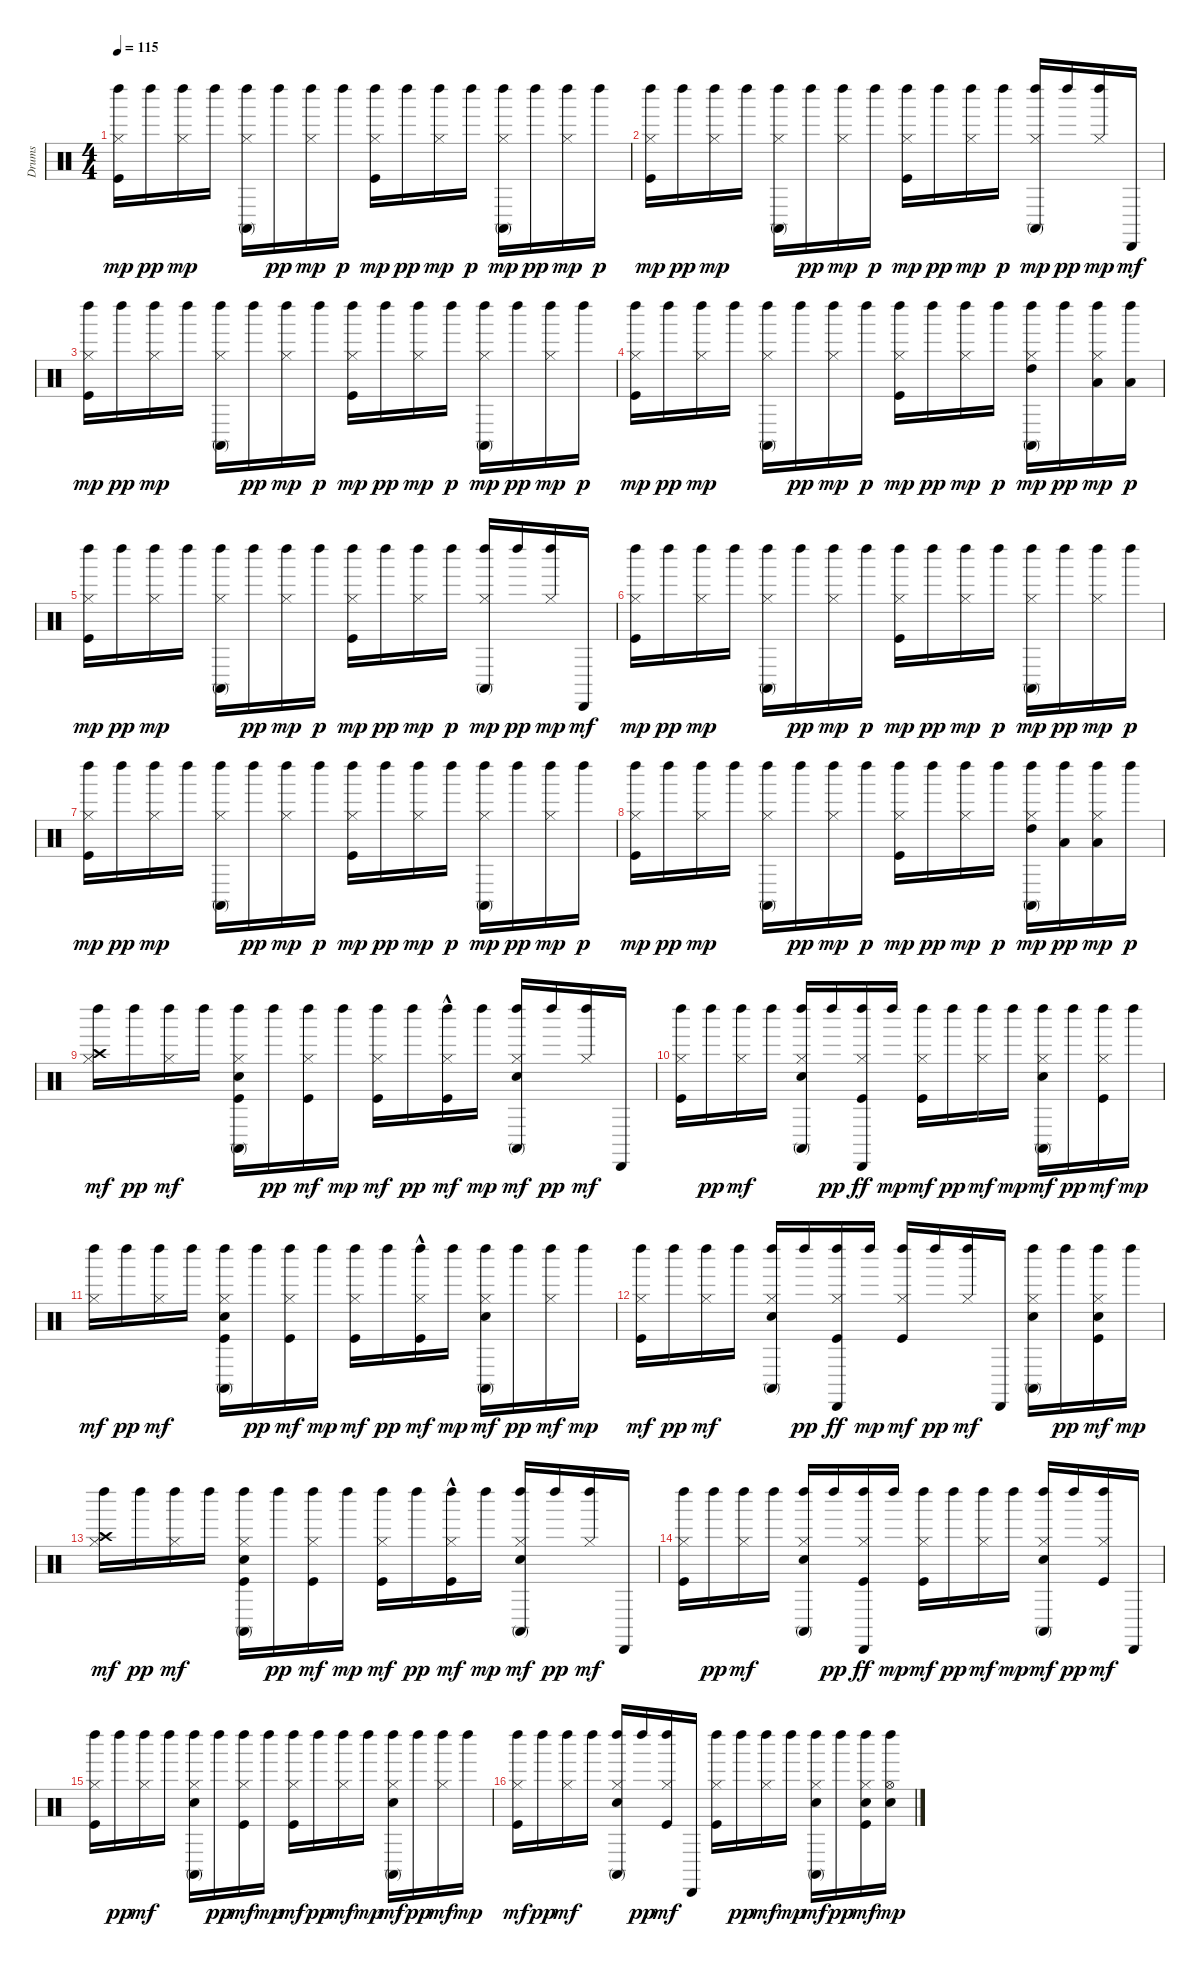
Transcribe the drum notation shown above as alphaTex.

\track ("Drums" "Drums") {instrument percussion}
\staff {score}
\articulation defaults
\ts (4 4)
\tempo 115
\clef neutral
\ks c
("Kick (hit)" "Hi-Hat (closed)" "Left Maraca (hit)").16{dy mp} "Left Maraca (hit)".16{dy pp} ("Hi-Hat (closed)" "Left Maraca (hit)").16{dy mp} "Left Maraca (hit)".16 ("Hi-Hat (closed)" "Conga high (mute)" "Left Maraca (hit)").16 "Left Maraca (hit)".16{dy pp} ("Hi-Hat (closed)" "Left Maraca (hit)").16{dy mp} "Left Maraca (hit)".16{dy p} ("Kick (hit)" "Hi-Hat (closed)" "Left Maraca (hit)").16{dy mp} "Left Maraca (hit)".16{dy pp} ("Hi-Hat (closed)" "Left Maraca (hit)").16{dy mp} "Left Maraca (hit)".16{dy p} ("Hi-Hat (closed)" "Conga high (mute)" "Left Maraca (hit)").16{dy mp} "Left Maraca (hit)".16{dy pp} ("Hi-Hat (closed)" "Left Maraca (hit)").16{dy mp} "Left Maraca (hit)".16{dy p} |
("Kick (hit)" "Hi-Hat (closed)" "Left Maraca (hit)").16{dy mp} "Left Maraca (hit)".16{dy pp} ("Hi-Hat (closed)" "Left Maraca (hit)").16{dy mp} "Left Maraca (hit)".16 ("Hi-Hat (closed)" "Conga high (mute)" "Left Maraca (hit)").16 "Left Maraca (hit)".16{dy pp} ("Hi-Hat (closed)" "Left Maraca (hit)").16{dy mp} "Left Maraca (hit)".16{dy p} ("Kick (hit)" "Hi-Hat (closed)" "Left Maraca (hit)").16{dy mp} "Left Maraca (hit)".16{dy pp} ("Hi-Hat (closed)" "Left Maraca (hit)").16{dy mp} "Left Maraca (hit)".16{dy p} ("Hi-Hat (closed)" "Conga high (mute)" "Left Maraca (hit)").16{dy mp} "Left Maraca (hit)".16{dy pp} ("Hi-Hat (closed)" "Left Maraca (hit)").16{dy mp} "Cabasa (hit)".16{dy mf} |
("Kick (hit)" "Hi-Hat (closed)" "Left Maraca (hit)").16{dy mp} "Left Maraca (hit)".16{dy pp} ("Hi-Hat (closed)" "Left Maraca (hit)").16{dy mp} "Left Maraca (hit)".16 ("Hi-Hat (closed)" "Conga high (mute)" "Left Maraca (hit)").16 "Left Maraca (hit)".16{dy pp} ("Hi-Hat (closed)" "Left Maraca (hit)").16{dy mp} "Left Maraca (hit)".16{dy p} ("Kick (hit)" "Hi-Hat (closed)" "Left Maraca (hit)").16{dy mp} "Left Maraca (hit)".16{dy pp} ("Hi-Hat (closed)" "Left Maraca (hit)").16{dy mp} "Left Maraca (hit)".16{dy p} ("Hi-Hat (closed)" "Conga high (mute)" "Left Maraca (hit)").16{dy mp} "Left Maraca (hit)".16{dy pp} ("Hi-Hat (closed)" "Left Maraca (hit)").16{dy mp} "Left Maraca (hit)".16{dy p} |
("Kick (hit)" "Hi-Hat (closed)" "Left Maraca (hit)").16{dy mp} "Left Maraca (hit)".16{dy pp} ("Hi-Hat (closed)" "Left Maraca (hit)").16{dy mp} "Left Maraca (hit)".16 ("Hi-Hat (closed)" "Conga high (mute)" "Left Maraca (hit)").16 "Left Maraca (hit)".16{dy pp} ("Hi-Hat (closed)" "Left Maraca (hit)").16{dy mp} "Left Maraca (hit)".16{dy p} ("Kick (hit)" "Hi-Hat (closed)" "Left Maraca (hit)").16{dy mp} "Left Maraca (hit)".16{dy pp} ("Hi-Hat (closed)" "Left Maraca (hit)").16{dy mp} "Left Maraca (hit)".16{dy p} ("Hi-Hat (closed)" "High Tom (hit)" "Conga high (mute)" "Left Maraca (hit)").16{dy mp} "Left Maraca (hit)".16{dy pp} ("Hi-Hat (closed)" "Low Floor Tom (hit)" "Left Maraca (hit)").16{dy mp} ("Low Tom (hit)" "Left Maraca (hit)").16{dy p} |
("Kick (hit)" "Hi-Hat (closed)" "Left Maraca (hit)").16{dy mp} "Left Maraca (hit)".16{dy pp} ("Hi-Hat (closed)" "Left Maraca (hit)").16{dy mp} "Left Maraca (hit)".16 ("Hi-Hat (closed)" "Conga high (mute)" "Left Maraca (hit)").16 "Left Maraca (hit)".16{dy pp} ("Hi-Hat (closed)" "Left Maraca (hit)").16{dy mp} "Left Maraca (hit)".16{dy p} ("Kick (hit)" "Hi-Hat (closed)" "Left Maraca (hit)").16{dy mp} "Left Maraca (hit)".16{dy pp} ("Hi-Hat (closed)" "Left Maraca (hit)").16{dy mp} "Left Maraca (hit)".16{dy p} ("Hi-Hat (closed)" "Conga high (mute)" "Left Maraca (hit)").16{dy mp} "Left Maraca (hit)".16{dy pp} ("Hi-Hat (closed)" "Left Maraca (hit)").16{dy mp} "Cabasa (hit)".16{dy mf} |
("Kick (hit)" "Hi-Hat (closed)" "Left Maraca (hit)").16{dy mp} "Left Maraca (hit)".16{dy pp} ("Hi-Hat (closed)" "Left Maraca (hit)").16{dy mp} "Left Maraca (hit)".16 ("Hi-Hat (closed)" "Conga high (mute)" "Left Maraca (hit)").16 "Left Maraca (hit)".16{dy pp} ("Hi-Hat (closed)" "Left Maraca (hit)").16{dy mp} "Left Maraca (hit)".16{dy p} ("Kick (hit)" "Hi-Hat (closed)" "Left Maraca (hit)").16{dy mp} "Left Maraca (hit)".16{dy pp} ("Hi-Hat (closed)" "Left Maraca (hit)").16{dy mp} "Left Maraca (hit)".16{dy p} ("Hi-Hat (closed)" "Conga high (mute)" "Left Maraca (hit)").16{dy mp} "Left Maraca (hit)".16{dy pp} ("Hi-Hat (closed)" "Left Maraca (hit)").16{dy mp} "Left Maraca (hit)".16{dy p} |
("Kick (hit)" "Hi-Hat (closed)" "Left Maraca (hit)").16{dy mp} "Left Maraca (hit)".16{dy pp} ("Hi-Hat (closed)" "Left Maraca (hit)").16{dy mp} "Left Maraca (hit)".16 ("Hi-Hat (closed)" "Conga high (mute)" "Left Maraca (hit)").16 "Left Maraca (hit)".16{dy pp} ("Hi-Hat (closed)" "Left Maraca (hit)").16{dy mp} "Left Maraca (hit)".16{dy p} ("Kick (hit)" "Hi-Hat (closed)" "Left Maraca (hit)").16{dy mp} "Left Maraca (hit)".16{dy pp} ("Hi-Hat (closed)" "Left Maraca (hit)").16{dy mp} "Left Maraca (hit)".16{dy p} ("Hi-Hat (closed)" "Conga high (mute)" "Left Maraca (hit)").16{dy mp} "Left Maraca (hit)".16{dy pp} ("Hi-Hat (closed)" "Left Maraca (hit)").16{dy mp} "Left Maraca (hit)".16{dy p} |
("Kick (hit)" "Hi-Hat (closed)" "Left Maraca (hit)").16{dy mp} "Left Maraca (hit)".16{dy pp} ("Hi-Hat (closed)" "Left Maraca (hit)").16{dy mp} "Left Maraca (hit)".16 ("Hi-Hat (closed)" "Conga high (mute)" "Left Maraca (hit)").16 "Left Maraca (hit)".16{dy pp} ("Hi-Hat (closed)" "Left Maraca (hit)").16{dy mp} "Left Maraca (hit)".16{dy p} ("Kick (hit)" "Hi-Hat (closed)" "Left Maraca (hit)").16{dy mp} "Left Maraca (hit)".16{dy pp} ("Hi-Hat (closed)" "Left Maraca (hit)").16{dy mp} "Left Maraca (hit)".16{dy p} ("Hi-Hat (closed)" "High Tom (hit)" "Conga high (mute)" "Left Maraca (hit)").16{dy mp} ("Low Tom (hit)" "Left Maraca (hit)").16{dy pp} ("Hi-Hat (closed)" "Low Floor Tom (hit)" "Left Maraca (hit)").16{dy mp} "Left Maraca (hit)".16{dy p} |
("Hi-Hat (closed)" "Crash high (hit)" "Left Maraca (hit)").16{dy mf} "Left Maraca (hit)".16{dy pp} ("Hi-Hat (closed)" "Left Maraca (hit)").16{dy mf} "Left Maraca (hit)".16 ("Kick (hit)" "Snare (hit) 2" "Hi-Hat (closed)" "Conga high (mute)" "Left Maraca (hit)").16 "Left Maraca (hit)".16{dy pp} ("Kick (hit)" "Hi-Hat (closed)" "Left Maraca (hit)").16{dy mf} "Left Maraca (hit)".16{dy mp} ("Kick (hit)" "Hi-Hat (closed)" "Left Maraca (hit)").16{dy mf} "Left Maraca (hit)".16{dy pp} ("Kick (hit)"{hac} "Hi-Hat (closed)" "Left Maraca (hit)").16{dy mf} "Left Maraca (hit)".16{dy mp} ("Snare (hit) 2" "Hi-Hat (closed)" "Conga high (mute)" "Left Maraca (hit)").16{dy mf} "Left Maraca (hit)".16{dy pp} ("Hi-Hat (closed)" "Left Maraca (hit)").16{dy mf} "Cabasa (hit)".16 |
("Kick (hit)" "Hi-Hat (closed)" "Left Maraca (hit)").16 "Left Maraca (hit)".16{dy pp} ("Hi-Hat (closed)" "Left Maraca (hit)").16{dy mf} "Left Maraca (hit)".16 ("Snare (hit) 2" "Hi-Hat (closed)" "Conga high (mute)" "Left Maraca (hit)").16 "Left Maraca (hit)".16{dy pp} ("Kick (hit)" "Hi-Hat (closed)" "Left Maraca (hit)" "Cabasa (hit)").16{dy ff} "Left Maraca (hit)".16{dy mp} ("Kick (hit)" "Hi-Hat (closed)" "Left Maraca (hit)").16{dy mf} "Left Maraca (hit)".16{dy pp} ("Hi-Hat (closed)" "Left Maraca (hit)").16{dy mf} "Left Maraca (hit)".16{dy mp} ("Snare (hit) 2" "Hi-Hat (closed)" "Conga high (mute)" "Left Maraca (hit)").16{dy mf} "Left Maraca (hit)".16{dy pp} ("Kick (hit)" "Hi-Hat (closed)" "Left Maraca (hit)").16{dy mf} "Left Maraca (hit)".16{dy mp} |
("Hi-Hat (closed)" "Left Maraca (hit)").16{dy mf} "Left Maraca (hit)".16{dy pp} ("Hi-Hat (closed)" "Left Maraca (hit)").16{dy mf} "Left Maraca (hit)".16 ("Kick (hit)" "Snare (hit) 2" "Hi-Hat (closed)" "Conga high (mute)" "Left Maraca (hit)").16 "Left Maraca (hit)".16{dy pp} ("Kick (hit)" "Hi-Hat (closed)" "Left Maraca (hit)").16{dy mf} "Left Maraca (hit)".16{dy mp} ("Kick (hit)" "Hi-Hat (closed)" "Left Maraca (hit)").16{dy mf} "Left Maraca (hit)".16{dy pp} ("Kick (hit)"{hac} "Hi-Hat (closed)" "Left Maraca (hit)").16{dy mf} "Left Maraca (hit)".16{dy mp} ("Snare (hit) 2" "Hi-Hat (closed)" "Conga high (mute)" "Left Maraca (hit)").16{dy mf} "Left Maraca (hit)".16{dy pp} ("Hi-Hat (closed)" "Left Maraca (hit)").16{dy mf} "Left Maraca (hit)".16{dy mp} |
("Kick (hit)" "Hi-Hat (closed)" "Left Maraca (hit)").16{dy mf} "Left Maraca (hit)".16{dy pp} ("Hi-Hat (closed)" "Left Maraca (hit)").16{dy mf} "Left Maraca (hit)".16 ("Snare (hit) 2" "Hi-Hat (closed)" "Conga high (mute)" "Left Maraca (hit)").16 "Left Maraca (hit)".16{dy pp} ("Kick (hit)" "Hi-Hat (closed)" "Left Maraca (hit)" "Cabasa (hit)").16{dy ff} "Left Maraca (hit)".16{dy mp} ("Kick (hit)" "Hi-Hat (closed)" "Left Maraca (hit)").16{dy mf} "Left Maraca (hit)".16{dy pp} ("Hi-Hat (closed)" "Left Maraca (hit)").16{dy mf} "Cabasa (hit)".16 ("Snare (hit) 2" "Hi-Hat (closed)" "Conga high (mute)" "Left Maraca (hit)").16 "Left Maraca (hit)".16{dy pp} ("Kick (hit)" "Snare (hit) 2" "Hi-Hat (closed)" "Left Maraca (hit)").16{dy mf} "Left Maraca (hit)".16{dy mp} |
("Hi-Hat (closed)" "Crash high (hit)" "Left Maraca (hit)").16{dy mf} "Left Maraca (hit)".16{dy pp} ("Hi-Hat (closed)" "Left Maraca (hit)").16{dy mf} "Left Maraca (hit)".16 ("Kick (hit)" "Snare (hit) 2" "Hi-Hat (closed)" "Conga high (mute)" "Left Maraca (hit)").16 "Left Maraca (hit)".16{dy pp} ("Kick (hit)" "Hi-Hat (closed)" "Left Maraca (hit)").16{dy mf} "Left Maraca (hit)".16{dy mp} ("Kick (hit)" "Hi-Hat (closed)" "Left Maraca (hit)").16{dy mf} "Left Maraca (hit)".16{dy pp} ("Kick (hit)"{hac} "Hi-Hat (closed)" "Left Maraca (hit)").16{dy mf} "Left Maraca (hit)".16{dy mp} ("Snare (hit) 2" "Hi-Hat (closed)" "Conga high (mute)" "Left Maraca (hit)").16{dy mf} "Left Maraca (hit)".16{dy pp} ("Hi-Hat (closed)" "Left Maraca (hit)").16{dy mf} "Cabasa (hit)".16 |
("Kick (hit)" "Hi-Hat (closed)" "Left Maraca (hit)").16 "Left Maraca (hit)".16{dy pp} ("Hi-Hat (closed)" "Left Maraca (hit)").16{dy mf} "Left Maraca (hit)".16 ("Snare (hit) 2" "Hi-Hat (closed)" "Conga high (mute)" "Left Maraca (hit)").16 "Left Maraca (hit)".16{dy pp} ("Kick (hit)" "Hi-Hat (closed)" "Left Maraca (hit)" "Cabasa (hit)").16{dy ff} "Left Maraca (hit)".16{dy mp} ("Kick (hit)" "Hi-Hat (closed)" "Left Maraca (hit)").16{dy mf} "Left Maraca (hit)".16{dy pp} ("Hi-Hat (closed)" "Left Maraca (hit)").16{dy mf} "Left Maraca (hit)".16{dy mp} ("Snare (hit) 2" "Hi-Hat (closed)" "Conga high (mute)" "Left Maraca (hit)").16{dy mf} "Left Maraca (hit)".16{dy pp} ("Kick (hit)" "Hi-Hat (closed)" "Left Maraca (hit)").16{dy mf} "Cabasa (hit)".16 |
("Kick (hit)" "Hi-Hat (closed)" "Left Maraca (hit)").16 "Left Maraca (hit)".16{dy pp} ("Hi-Hat (closed)" "Left Maraca (hit)").16{dy mf} "Left Maraca (hit)".16 ("Snare (hit) 2" "Hi-Hat (closed)" "Conga high (mute)" "Left Maraca (hit)").16 "Left Maraca (hit)".16{dy pp} ("Kick (hit)" "Hi-Hat (closed)" "Left Maraca (hit)").16{dy mf} "Left Maraca (hit)".16{dy mp} ("Kick (hit)" "Hi-Hat (closed)" "Left Maraca (hit)").16{dy mf} "Left Maraca (hit)".16{dy pp} ("Hi-Hat (closed)" "Left Maraca (hit)").16{dy mf} "Left Maraca (hit)".16{dy mp} ("Snare (hit) 2" "Hi-Hat (closed)" "Conga high (mute)" "Left Maraca (hit)").16{dy mf} "Left Maraca (hit)".16{dy pp} ("Hi-Hat (closed)" "Left Maraca (hit)").16{dy mf} "Left Maraca (hit)".16{dy mp} |
("Kick (hit)" "Hi-Hat (closed)" "Left Maraca (hit)").16{dy mf} "Left Maraca (hit)".16{dy pp} ("Hi-Hat (closed)" "Left Maraca (hit)").16{dy mf} "Left Maraca (hit)".16 ("Snare (hit) 2" "Hi-Hat (closed)" "Conga high (mute)" "Left Maraca (hit)").16 "Left Maraca (hit)".16{dy pp} ("Kick (hit)" "Hi-Hat (closed)" "Left Maraca (hit)").16{dy mf} "Cabasa (hit)".16 ("Kick (hit)" "Hi-Hat (closed)" "Left Maraca (hit)").16 "Left Maraca (hit)".16{dy pp} ("Hi-Hat (closed)" "Left Maraca (hit)").16{dy mf} "Left Maraca (hit)".16{dy mp} ("Snare (hit) 2" "Hi-Hat (closed)" "Conga high (mute)" "Left Maraca (hit)").16{dy mf} "Left Maraca (hit)".16{dy pp} ("Kick (hit)" "Snare (hit) 2" "Hi-Hat (closed)" "Left Maraca (hit)").16{dy mf} ("Snare (hit) 2" "Hi-Hat (open)" "Left Maraca (hit)").16{dy mp}
